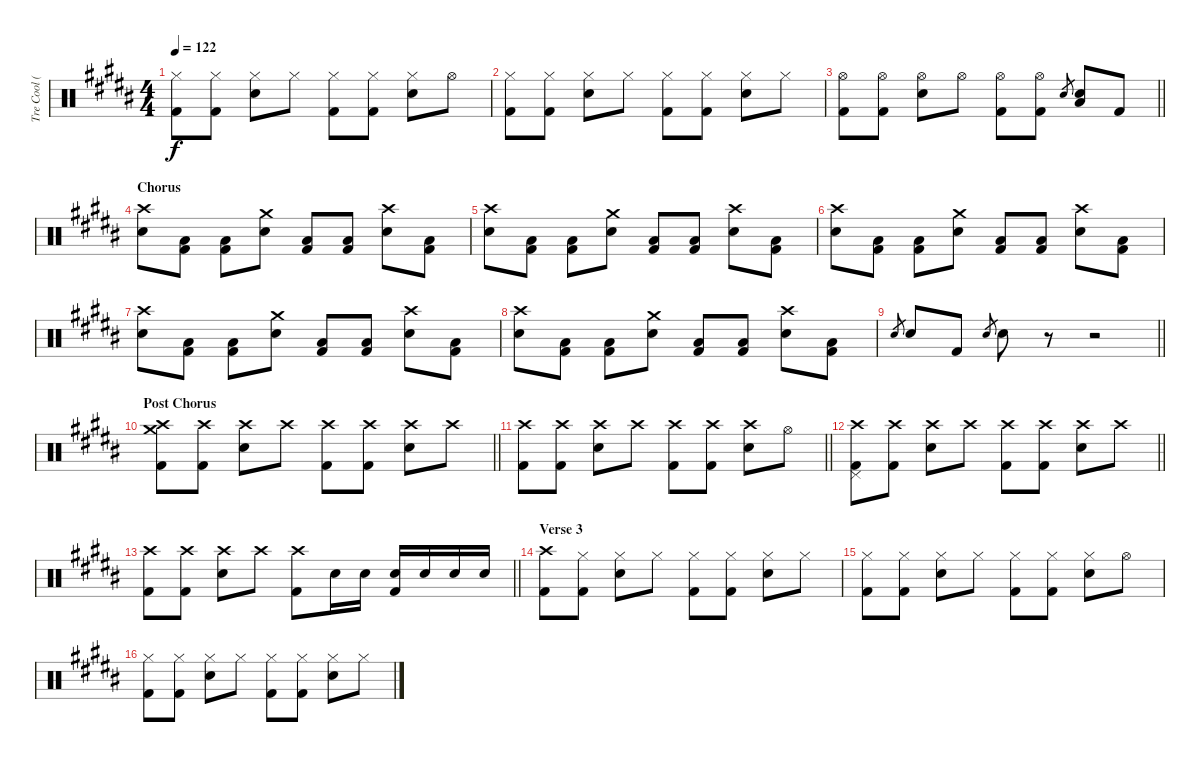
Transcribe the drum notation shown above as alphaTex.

\track ("Tre Cool (Drums)" "Tre Cool (") {instrument percussion}
\staff {score}
\articulation defaults
\ts (4 4)
\tempo 122
\clef neutral
\ks b
("Hi-Hat (closed)" "Kick (hit) 2").8{dy f} ("Hi-Hat (closed)" "Kick (hit) 2").8 ("Hi-Hat (closed)" "Electric Snare (hit)").8 "Hi-Hat (closed)".8 ("Hi-Hat (closed)" "Kick (hit) 2").8 ("Hi-Hat (closed)" "Kick (hit) 2").8 ("Hi-Hat (closed)" "Electric Snare (hit)").8 "Hi-Hat (open)".8 |
("Hi-Hat (closed)" "Kick (hit) 2").8 ("Hi-Hat (closed)" "Kick (hit) 2").8 ("Hi-Hat (closed)" "Electric Snare (hit)").8 "Hi-Hat (closed)".8 ("Hi-Hat (closed)" "Kick (hit) 2").8 ("Hi-Hat (closed)" "Kick (hit) 2").8 ("Hi-Hat (closed)" "Electric Snare (hit)").8 "Hi-Hat (closed)".8 |
\barLineRight lightlight
("Hi-Hat (open)" "Kick (hit) 2").8 ("Hi-Hat (open)" "Kick (hit) 2").8 ("Hi-Hat (open)" "Electric Snare (hit)").8 "Hi-Hat (open)".8 ("Hi-Hat (open)" "Kick (hit) 2").8 ("Hi-Hat (open)" "Kick (hit) 2").8 "Electric Snare (hit)".8{gr} ("Low Tom (hit)" "Electric Snare (hit)").8 "Kick (hit) 2".8 |
\section ("" "Chorus")
("Crash high (hit)" "Electric Snare (hit)").8 ("Low Tom (hit)" "Kick (hit) 2").8 ("Low Tom (hit)" "Kick (hit) 2").8 ("Crash medium (hit)" "Electric Snare (hit)").8 ("Low Tom (hit)" "Kick (hit) 2").8 ("Low Tom (hit)" "Kick (hit) 2").8 ("Crash high (hit)" "Electric Snare (hit)").8 ("Low Tom (hit)" "Kick (hit) 2").8 |
("Crash high (hit)" "Electric Snare (hit)").8 ("Low Tom (hit)" "Kick (hit) 2").8 ("Low Tom (hit)" "Kick (hit) 2").8 ("Crash medium (hit)" "Electric Snare (hit)").8 ("Low Tom (hit)" "Kick (hit) 2").8 ("Low Tom (hit)" "Kick (hit) 2").8 ("Crash high (hit)" "Electric Snare (hit)").8 ("Low Tom (hit)" "Kick (hit) 2").8 |
("Crash high (hit)" "Electric Snare (hit)").8 ("Low Tom (hit)" "Kick (hit) 2").8 ("Low Tom (hit)" "Kick (hit) 2").8 ("Crash medium (hit)" "Electric Snare (hit)").8 ("Low Tom (hit)" "Kick (hit) 2").8 ("Low Tom (hit)" "Kick (hit) 2").8 ("Crash high (hit)" "Electric Snare (hit)").8 ("Low Tom (hit)" "Kick (hit) 2").8 |
("Crash high (hit)" "Electric Snare (hit)").8 ("Low Tom (hit)" "Kick (hit) 2").8 ("Low Tom (hit)" "Kick (hit) 2").8 ("Crash medium (hit)" "Electric Snare (hit)").8 ("Low Tom (hit)" "Kick (hit) 2").8 ("Low Tom (hit)" "Kick (hit) 2").8 ("Crash high (hit)" "Electric Snare (hit)").8 ("Low Tom (hit)" "Kick (hit) 2").8 |
("Crash high (hit)" "Electric Snare (hit)").8 ("Low Tom (hit)" "Kick (hit) 2").8 ("Low Tom (hit)" "Kick (hit) 2").8 ("Crash medium (hit)" "Electric Snare (hit)").8 ("Low Tom (hit)" "Kick (hit) 2").8 ("Low Tom (hit)" "Kick (hit) 2").8 ("Crash high (hit)" "Electric Snare (hit)").8 ("Low Tom (hit)" "Kick (hit) 2").8 |
\barLineRight lightlight "Electric Snare (hit)".8{gr} "Electric Snare (hit)".8 "Kick (hit) 2".8 "Electric Snare (hit)".8{gr} "Electric Snare (hit)".8
r.8 r.2 |
\section ("" "Post Chorus")
\barLineRight lightlight
("Crash high (hit)" "Crash medium (hit)" "Kick (hit) 2").8 ("Crash high (hit)" "Kick (hit) 2").8 ("Crash high (hit)" "Electric Snare (hit)").8 "Crash high (hit)".8 ("Crash high (hit)" "Kick (hit) 2").8 ("Crash high (hit)" "Kick (hit) 2").8 ("Crash high (hit)" "Electric Snare (hit)").8 "Crash high (hit)".8 |
\barLineRight lightlight
("Crash high (hit)" "Kick (hit) 2").8 ("Crash high (hit)" "Kick (hit) 2").8 ("Crash high (hit)" "Electric Snare (hit)").8 "Crash high (hit)".8 ("Crash high (hit)" "Kick (hit) 2").8 ("Crash high (hit)" "Kick (hit) 2").8 ("Crash high (hit)" "Electric Snare (hit)").8 "Hi-Hat (open)".8 |
\barLineRight lightlight
("Crash high (hit)" "Pedal Hi-Hat (hit)" "Kick (hit) 2").8 ("Crash high (hit)" "Kick (hit) 2").8 ("Crash high (hit)" "Electric Snare (hit)").8 "Crash high (hit)".8 ("Crash high (hit)" "Kick (hit) 2").8 ("Crash high (hit)" "Kick (hit) 2").8 ("Crash high (hit)" "Electric Snare (hit)").8 "Crash high (hit)".8 |
\barLineRight lightlight
("Crash high (hit)" "Kick (hit) 2").8 ("Crash high (hit)" "Kick (hit) 2").8 ("Crash high (hit)" "Electric Snare (hit)").8 "Crash high (hit)".8 ("Crash high (hit)" "Kick (hit) 2").8 "Electric Snare (hit)".16 "Electric Snare (hit)".16 ("Electric Snare (hit)" "Kick (hit) 2").16 "Electric Snare (hit)".16 "Electric Snare (hit)".16 "Electric Snare (hit)".16 |
\section ("" "Verse 3")
("Crash high (hit)" "Kick (hit) 2").8 ("Hi-Hat (closed)" "Kick (hit) 2").8 ("Hi-Hat (closed)" "Electric Snare (hit)").8 "Hi-Hat (closed)".8 ("Hi-Hat (closed)" "Kick (hit) 2").8 ("Hi-Hat (closed)" "Kick (hit) 2").8 ("Hi-Hat (closed)" "Electric Snare (hit)").8 "Hi-Hat (closed)".8 |
("Hi-Hat (closed)" "Kick (hit) 2").8 ("Hi-Hat (closed)" "Kick (hit) 2").8 ("Hi-Hat (closed)" "Electric Snare (hit)").8 "Hi-Hat (closed)".8 ("Hi-Hat (closed)" "Kick (hit) 2").8 ("Hi-Hat (closed)" "Kick (hit) 2").8 ("Hi-Hat (closed)" "Electric Snare (hit)").8 "Hi-Hat (open)".8 |
("Hi-Hat (closed)" "Kick (hit) 2").8 ("Hi-Hat (closed)" "Kick (hit) 2").8 ("Hi-Hat (closed)" "Electric Snare (hit)").8 "Hi-Hat (closed)".8 ("Hi-Hat (closed)" "Kick (hit) 2").8 ("Hi-Hat (closed)" "Kick (hit) 2").8 ("Hi-Hat (closed)" "Electric Snare (hit)").8 "Hi-Hat (closed)".8
